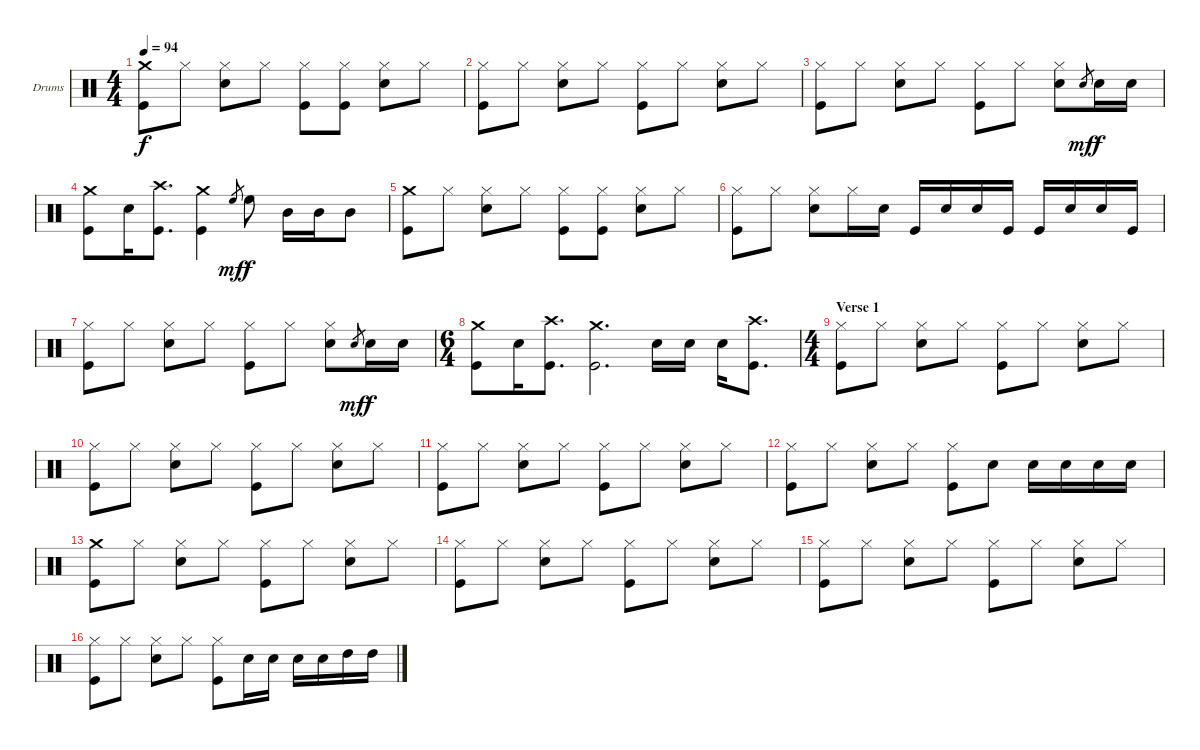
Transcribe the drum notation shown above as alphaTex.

\bracketExtendMode groupsimilarinstruments
\firstSystemTrackNameOrientation horizontal
\otherSystemsTrackNameOrientation horizontal
\track ("Drumkit" "Drums") {instrument percussion}
\staff {score}
\articulation defaults
\ts (4 4)
\tempo 94
\clef neutral
\ks c
("Crash medium (hit)" "Kick (hit)").8{dy f} "Hi-Hat (closed)".8 ("Hi-Hat (closed)" "Snare (hit) 2").8 "Hi-Hat (closed)".8 ("Hi-Hat (closed)" "Kick (hit)").8 ("Hi-Hat (closed)" "Kick (hit)").8 ("Hi-Hat (closed)" "Snare (hit) 2").8 "Hi-Hat (closed)".8 |
("Hi-Hat (closed)" "Kick (hit)").8 "Hi-Hat (closed)".8 ("Hi-Hat (closed)" "Snare (hit) 2").8 "Hi-Hat (closed)".8 ("Hi-Hat (closed)" "Kick (hit)").8 "Hi-Hat (closed)".8 ("Hi-Hat (closed)" "Snare (hit) 2").8 "Hi-Hat (closed)".8 |
("Hi-Hat (closed)" "Kick (hit)").8 "Hi-Hat (closed)".8 ("Hi-Hat (closed)" "Snare (hit) 2").8 "Hi-Hat (closed)".8 ("Hi-Hat (closed)" "Kick (hit)").8 "Hi-Hat (closed)".8 ("Hi-Hat (closed)" "Snare (hit) 2").8 "Snare (hit) 2".8{gr dy mf} "Snare (hit) 2".16{dy f} "Snare (hit) 2".16 |
("Crash medium (hit)" "Kick (hit)").8 "Snare (hit) 2".16 ("Crash high (hit)" "Kick (hit)").8{d} ("Crash medium (hit)" "Kick (hit)").4 "High Floor Tom (hit)".8{gr dy mf} "High Floor Tom (hit)".8{dy f} "Mid Tom (hit)".16 "Mid Tom (hit)".16 "Mid Tom (hit)".8 |
("Crash medium (hit)" "Kick (hit)").8 "Hi-Hat (closed)".8 ("Hi-Hat (closed)" "Snare (hit) 2").8 "Hi-Hat (closed)".8 ("Hi-Hat (closed)" "Kick (hit)").8 ("Hi-Hat (closed)" "Kick (hit)").8 ("Hi-Hat (closed)" "Snare (hit) 2").8 "Hi-Hat (closed)".8 |
("Hi-Hat (closed)" "Kick (hit)").8 "Hi-Hat (closed)".8 ("Hi-Hat (closed)" "Snare (hit) 2").8 "Hi-Hat (closed)".16 "Snare (hit) 2".16 "Kick (hit)".16 "Snare (hit) 2".16 "Snare (hit) 2".16 "Kick (hit)".16 "Kick (hit)".16 "Snare (hit) 2".16 "Snare (hit) 2".16 "Kick (hit)".16 |
("Hi-Hat (closed)" "Kick (hit)").8 "Hi-Hat (closed)".8 ("Hi-Hat (closed)" "Snare (hit) 2").8 "Hi-Hat (closed)".8 ("Hi-Hat (closed)" "Kick (hit)").8 "Hi-Hat (closed)".8 ("Hi-Hat (closed)" "Snare (hit) 2").8 "Snare (hit) 2".8{gr dy mf} "Snare (hit) 2".16{dy f} "Snare (hit) 2".16 |
\ts (6 4)
("Crash medium (hit)" "Kick (hit)").8 "Snare (hit) 2".16 ("Crash high (hit)" "Kick (hit)").8{d} ("Crash medium (hit)" "Kick (hit)").2{d} "Snare (hit) 2".16 "Snare (hit) 2".16 "Snare (hit) 2".16 ("Crash high (hit)" "Kick (hit)").8{d} |
\ts (4 4)
\section ("" "Verse 1")
("Hi-Hat (closed)" "Kick (hit)").8 "Hi-Hat (closed)".8 ("Hi-Hat (closed)" "Snare (hit) 2").8 "Hi-Hat (closed)".8 ("Hi-Hat (closed)" "Kick (hit)").8 "Hi-Hat (closed)".8 ("Hi-Hat (closed)" "Snare (hit) 2").8 "Hi-Hat (closed)".8 |
("Hi-Hat (closed)" "Kick (hit)").8 "Hi-Hat (closed)".8 ("Hi-Hat (closed)" "Snare (hit) 2").8 "Hi-Hat (closed)".8 ("Hi-Hat (closed)" "Kick (hit)").8 "Hi-Hat (closed)".8 ("Hi-Hat (closed)" "Snare (hit) 2").8 "Hi-Hat (closed)".8 |
("Hi-Hat (closed)" "Kick (hit)").8 "Hi-Hat (closed)".8 ("Hi-Hat (closed)" "Snare (hit) 2").8 "Hi-Hat (closed)".8 ("Hi-Hat (closed)" "Kick (hit)").8 "Hi-Hat (closed)".8 ("Hi-Hat (closed)" "Snare (hit) 2").8 "Hi-Hat (closed)".8 |
("Hi-Hat (closed)" "Kick (hit)").8 "Hi-Hat (closed)".8 ("Hi-Hat (closed)" "Snare (hit) 2").8 "Hi-Hat (closed)".8 ("Hi-Hat (closed)" "Kick (hit)").8 "Snare (hit) 2".8 "Snare (hit) 2".16 "Snare (hit) 2".16 "Snare (hit) 2".16 "Snare (hit) 2".16 |
("Crash medium (hit)" "Kick (hit)").8 "Hi-Hat (closed)".8 ("Hi-Hat (closed)" "Snare (hit) 2").8 "Hi-Hat (closed)".8 ("Hi-Hat (closed)" "Kick (hit)").8 "Hi-Hat (closed)".8 ("Hi-Hat (closed)" "Snare (hit) 2").8 "Hi-Hat (closed)".8 |
("Hi-Hat (closed)" "Kick (hit)").8 "Hi-Hat (closed)".8 ("Hi-Hat (closed)" "Snare (hit) 2").8 "Hi-Hat (closed)".8 ("Hi-Hat (closed)" "Kick (hit)").8 "Hi-Hat (closed)".8 ("Hi-Hat (closed)" "Snare (hit) 2").8 "Hi-Hat (closed)".8 |
("Hi-Hat (closed)" "Kick (hit)").8 "Hi-Hat (closed)".8 ("Hi-Hat (closed)" "Snare (hit) 2").8 "Hi-Hat (closed)".8 ("Hi-Hat (closed)" "Kick (hit)").8 "Hi-Hat (closed)".8 ("Hi-Hat (closed)" "Snare (hit) 2").8 "Hi-Hat (closed)".8 |
("Hi-Hat (closed)" "Kick (hit)").8 "Hi-Hat (closed)".8 ("Hi-Hat (closed)" "Snare (hit) 2").8 "Hi-Hat (closed)".8 ("Hi-Hat (closed)" "Kick (hit)").8 "Snare (hit) 2".16 "Snare (hit) 2".16 "Snare (hit) 2".16 "Snare (hit) 2".16 "High Tom (hit)".16 "High Tom (hit)".16
